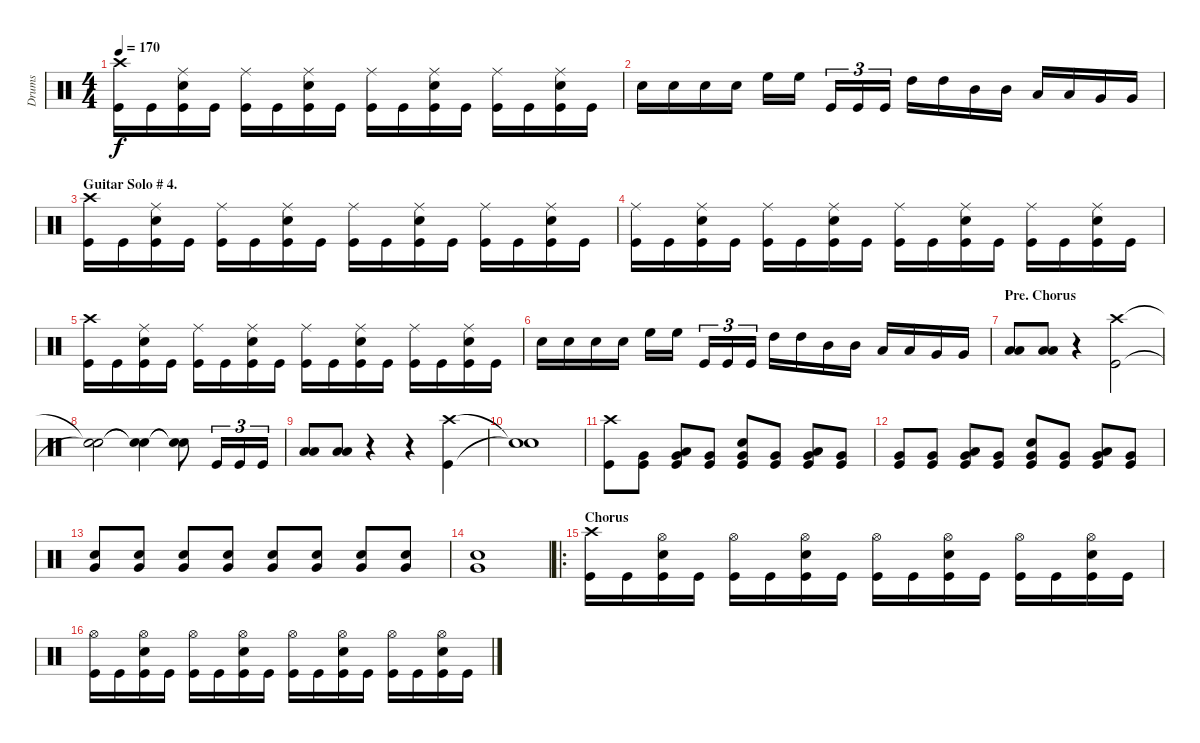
\track ("Drums" "Drums") {instrument percussion}
\staff {score}
\articulation defaults
\ts (4 4)
\tempo 170
\clef neutral
\ks c
("Crash high (hit)" "Kick (hit)").16{dy f} "Kick (hit)".16 ("Ride (middle)" "Snare (hit) 2" "Kick (hit)").16 "Kick (hit)".16 ("Ride (middle)" "Kick (hit)").16 "Kick (hit)".16 ("Ride (middle)" "Snare (hit) 2" "Kick (hit)").16 "Kick (hit)".16 ("Ride (middle)" "Kick (hit)").16 "Kick (hit)".16 ("Ride (middle)" "Snare (hit) 2" "Kick (hit)").16 "Kick (hit)".16 ("Ride (middle)" "Kick (hit)").16 "Kick (hit)".16 ("Ride (middle)" "Snare (hit) 2" "Kick (hit)").16 "Kick (hit)".16 |
"Snare (hit) 2".16 "Snare (hit) 2".16 "Snare (hit) 2".16 "Snare (hit) 2".16 "High Floor Tom (hit)".16 "High Floor Tom (hit)".16 "Kick (hit)".16{tu (3 2)} "Kick (hit)".16{tu (3 2)} "Kick (hit)".16{tu (3 2)} "High Tom (hit)".16 "High Tom (hit)".16 "Mid Tom (hit)".16 "Mid Tom (hit)".16 "Low Tom (hit)".16 "Low Tom (hit)".16 "Very Low Tom (hit)".16 "Very Low Tom (hit)".16 |
\section ("" "Guitar Solo # 4.")
("Crash high (hit)" "Kick (hit)").16 "Kick (hit)".16 ("Ride (middle)" "Snare (hit) 2" "Kick (hit)").16 "Kick (hit)".16 ("Ride (middle)" "Kick (hit)").16 "Kick (hit)".16 ("Ride (middle)" "Snare (hit) 2" "Kick (hit)").16 "Kick (hit)".16 ("Ride (middle)" "Kick (hit)").16 "Kick (hit)".16 ("Ride (middle)" "Snare (hit) 2" "Kick (hit)").16 "Kick (hit)".16 ("Ride (middle)" "Kick (hit)").16 "Kick (hit)".16 ("Ride (middle)" "Snare (hit) 2" "Kick (hit)").16 "Kick (hit)".16 |
("Ride (middle)" "Kick (hit)").16 "Kick (hit)".16 ("Ride (middle)" "Snare (hit) 2" "Kick (hit)").16 "Kick (hit)".16 ("Ride (middle)" "Kick (hit)").16 "Kick (hit)".16 ("Ride (middle)" "Snare (hit) 2" "Kick (hit)").16 "Kick (hit)".16 ("Ride (middle)" "Kick (hit)").16 "Kick (hit)".16 ("Ride (middle)" "Snare (hit) 2" "Kick (hit)").16 "Kick (hit)".16 ("Ride (middle)" "Kick (hit)").16 "Kick (hit)".16 ("Ride (middle)" "Snare (hit) 2" "Kick (hit)").16 "Kick (hit)".16 |
("Crash high (hit)" "Kick (hit)").16 "Kick (hit)".16 ("Ride (middle)" "Snare (hit) 2" "Kick (hit)").16 "Kick (hit)".16 ("Ride (middle)" "Kick (hit)").16 "Kick (hit)".16 ("Ride (middle)" "Snare (hit) 2" "Kick (hit)").16 "Kick (hit)".16 ("Ride (middle)" "Kick (hit)").16 "Kick (hit)".16 ("Ride (middle)" "Snare (hit) 2" "Kick (hit)").16 "Kick (hit)".16 ("Ride (middle)" "Kick (hit)").16 "Kick (hit)".16 ("Ride (middle)" "Snare (hit) 2" "Kick (hit)").16 "Kick (hit)".16 |
"Snare (hit) 2".16 "Snare (hit) 2".16 "Snare (hit) 2".16 "Snare (hit) 2".16 "High Floor Tom (hit)".16 "High Floor Tom (hit)".16 "Kick (hit)".16{tu (3 2)} "Kick (hit)".16{tu (3 2)} "Kick (hit)".16{tu (3 2)} "High Tom (hit)".16 "High Tom (hit)".16 "Mid Tom (hit)".16 "Mid Tom (hit)".16 "Low Tom (hit)".16 "Low Tom (hit)".16 "Very Low Tom (hit)".16 "Very Low Tom (hit)".16 |
\section ("" "Pre. Chorus")
("Low Tom (hit)" "Low Floor Tom (hit)").8 ("Low Tom (hit)" "Low Floor Tom (hit)").8 r.4 ("Crash high (hit)" "Kick (hit)").2 |
("Snare (hit)"{t} "Snare (hit)"{t}).2 ("Snare (hit)"{t} "Snare (hit)"{t}).4 ("Snare (hit)"{t} "Snare (hit)"{t}).8 "Kick (hit)".16{tu (3 2)} "Kick (hit)".16{tu (3 2)} "Kick (hit)".16{tu (3 2)} |
("Low Tom (hit)" "Low Floor Tom (hit)").8 ("Low Tom (hit)" "Low Floor Tom (hit)").8 r.4 r.4 ("Crash high (hit)" "Kick (hit)").4 |
("Snare (hit)"{t} "Snare (hit)"{t}).1 |
("Crash high (hit)" "Kick (hit)").8 ("Very Low Tom (hit)" "Kick (hit)").8 ("Low Tom (hit)" "Very Low Tom (hit)" "Kick (hit)").8 ("Very Low Tom (hit)" "Kick (hit)").8 ("Very Low Tom (hit)" "Snare (hit) 2" "Kick (hit)").8 ("Very Low Tom (hit)" "Kick (hit)").8 ("Low Tom (hit)" "Very Low Tom (hit)" "Kick (hit)").8 ("Very Low Tom (hit)" "Kick (hit)").8 |
("Very Low Tom (hit)" "Kick (hit)").8 ("Very Low Tom (hit)" "Kick (hit)").8 ("Low Tom (hit)" "Very Low Tom (hit)" "Kick (hit)").8 ("Very Low Tom (hit)" "Kick (hit)").8 ("Very Low Tom (hit)" "Snare (hit) 2" "Kick (hit)").8 ("Very Low Tom (hit)" "Kick (hit)").8 ("Low Tom (hit)" "Very Low Tom (hit)" "Kick (hit)").8 ("Very Low Tom (hit)" "Kick (hit)").8 |
("Very Low Tom (hit)" "Snare (hit) 2").8 ("Very Low Tom (hit)" "Snare (hit) 2").8 ("Very Low Tom (hit)" "Snare (hit) 2").8 ("Very Low Tom (hit)" "Snare (hit) 2").8 ("Very Low Tom (hit)" "Snare (hit) 2").8 ("Very Low Tom (hit)" "Snare (hit) 2").8 ("Very Low Tom (hit)" "Snare (hit) 2").8 ("Very Low Tom (hit)" "Snare (hit) 2").8 |
("Very Low Tom (hit)" "Snare (hit) 2").1 |
\ro
\section ("" "Chorus")
("Crash high (hit)" "Kick (hit)").16 "Kick (hit)".16 ("Hi-Hat (open)" "Snare (hit) 2" "Kick (hit)").16 "Kick (hit)".16 ("Hi-Hat (open)" "Kick (hit)").16 "Kick (hit)".16 ("Hi-Hat (open)" "Snare (hit) 2" "Kick (hit)").16 "Kick (hit)".16 ("Hi-Hat (open)" "Kick (hit)").16 "Kick (hit)".16 ("Hi-Hat (open)" "Snare (hit) 2" "Kick (hit)").16 "Kick (hit)".16 ("Hi-Hat (open)" "Kick (hit)").16 "Kick (hit)".16 ("Hi-Hat (open)" "Snare (hit) 2" "Kick (hit)").16 "Kick (hit)".16 |
("Hi-Hat (open)" "Kick (hit)").16 "Kick (hit)".16 ("Hi-Hat (open)" "Snare (hit) 2" "Kick (hit)").16 "Kick (hit)".16 ("Hi-Hat (open)" "Kick (hit)").16 "Kick (hit)".16 ("Hi-Hat (open)" "Snare (hit) 2" "Kick (hit)").16 "Kick (hit)".16 ("Hi-Hat (open)" "Kick (hit)").16 "Kick (hit)".16 ("Hi-Hat (open)" "Snare (hit) 2" "Kick (hit)").16 "Kick (hit)".16 ("Hi-Hat (open)" "Kick (hit)").16 "Kick (hit)".16 ("Hi-Hat (open)" "Snare (hit) 2" "Kick (hit)").16 "Kick (hit)".16
